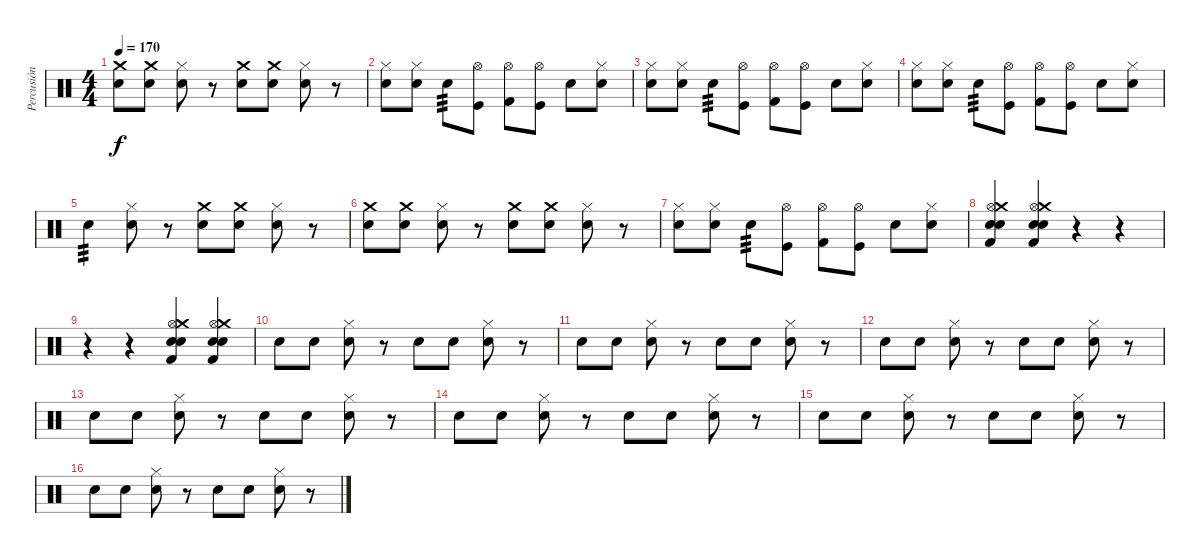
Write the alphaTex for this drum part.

\track ("Percusión" "Percusión") {instrument percussion}
\staff {score}
\articulation defaults
\ts (4 4)
\tempo 170
\clef neutral
\ks c
("Electric Snare (hit)" "Crash medium (hit)").8{dy f} ("Electric Snare (hit)" "Crash medium (hit)").8 ("Hi-Hat (closed)" "Snare (hit) 2").8 r.8 ("Electric Snare (hit)" "Crash medium (hit)").8 ("Electric Snare (hit)" "Crash medium (hit)").8 ("Hi-Hat (closed)" "Snare (hit) 2").8 r.8 |
("Hi-Hat (closed)" "Electric Snare (hit)").8 ("Hi-Hat (closed)" "Electric Snare (hit)").8 "Snare (hit) 2".8{tp 3} ("Hi-Hat (open)" "Kick (hit)").8 ("Hi-Hat (open)" "Kick (hit) 2").8 ("Hi-Hat (open)" "Kick (hit)").8 "Electric Snare (hit)".8 ("Hi-Hat (closed)" "Electric Snare (hit)").8 |
("Hi-Hat (closed)" "Electric Snare (hit)").8 ("Hi-Hat (closed)" "Electric Snare (hit)").8 "Snare (hit) 2".8{tp 3} ("Hi-Hat (open)" "Kick (hit)").8 ("Hi-Hat (open)" "Kick (hit) 2").8 ("Hi-Hat (open)" "Kick (hit)").8 "Electric Snare (hit)".8 ("Hi-Hat (closed)" "Electric Snare (hit)").8 |
("Hi-Hat (closed)" "Electric Snare (hit)").8 ("Hi-Hat (closed)" "Electric Snare (hit)").8 "Snare (hit) 2".8{tp 3} ("Hi-Hat (open)" "Kick (hit)").8 ("Hi-Hat (open)" "Kick (hit) 2").8 ("Hi-Hat (open)" "Kick (hit)").8 "Electric Snare (hit)".8 ("Hi-Hat (closed)" "Electric Snare (hit)").8 |
"Electric Snare (hit)".4{tp 3} ("Hi-Hat (closed)" "Snare (hit) 2").8 r.8 ("Electric Snare (hit)" "Crash medium (hit)").8 ("Electric Snare (hit)" "Crash medium (hit)").8 ("Hi-Hat (closed)" "Snare (hit) 2").8 r.8 |
("Electric Snare (hit)" "Crash medium (hit)").8 ("Electric Snare (hit)" "Crash medium (hit)").8 ("Hi-Hat (closed)" "Snare (hit) 2").8 r.8 ("Electric Snare (hit)" "Crash medium (hit)").8 ("Electric Snare (hit)" "Crash medium (hit)").8 ("Hi-Hat (closed)" "Snare (hit) 2").8 r.8 |
("Hi-Hat (closed)" "Electric Snare (hit)").8 ("Hi-Hat (closed)" "Electric Snare (hit)").8 "Snare (hit) 2".8{tp 3} ("Hi-Hat (open)" "Kick (hit)").8 ("Hi-Hat (open)" "Kick (hit) 2").8 ("Hi-Hat (open)" "Kick (hit)").8 "Electric Snare (hit)".8 ("Hi-Hat (closed)" "Electric Snare (hit)").8 |
("Hi-Hat (open)" "Crash medium (hit)" "Electric Snare (hit)" "Snare (hit) 2" "Kick (hit) 2").4 ("Hi-Hat (open)" "Crash medium (hit)" "Electric Snare (hit)" "Snare (hit) 2" "Kick (hit) 2").4 r.4 r.4 |
r.4 r.4 ("Hi-Hat (open)" "Crash medium (hit)" "Electric Snare (hit)" "Snare (hit) 2" "Kick (hit) 2").4 ("Hi-Hat (open)" "Crash medium (hit)" "Electric Snare (hit)" "Snare (hit) 2" "Kick (hit) 2").4 |
"Electric Snare (hit)".8 "Electric Snare (hit)".8 ("Hi-Hat (closed)" "Snare (hit) 2").8 r.8 "Electric Snare (hit)".8 "Electric Snare (hit)".8 ("Hi-Hat (closed)" "Snare (hit) 2").8 r.8 |
"Electric Snare (hit)".8 "Electric Snare (hit)".8 ("Hi-Hat (closed)" "Snare (hit) 2").8 r.8 "Electric Snare (hit)".8 "Electric Snare (hit)".8 ("Hi-Hat (closed)" "Snare (hit) 2").8 r.8 |
"Electric Snare (hit)".8 "Electric Snare (hit)".8 ("Hi-Hat (closed)" "Snare (hit) 2").8 r.8 "Electric Snare (hit)".8 "Electric Snare (hit)".8 ("Hi-Hat (closed)" "Snare (hit) 2").8 r.8 |
"Electric Snare (hit)".8 "Electric Snare (hit)".8 ("Hi-Hat (closed)" "Snare (hit) 2").8 r.8 "Electric Snare (hit)".8 "Electric Snare (hit)".8 ("Hi-Hat (closed)" "Snare (hit) 2").8 r.8 |
"Electric Snare (hit)".8 "Electric Snare (hit)".8 ("Hi-Hat (closed)" "Snare (hit) 2").8 r.8 "Electric Snare (hit)".8 "Electric Snare (hit)".8 ("Hi-Hat (closed)" "Snare (hit) 2").8 r.8 |
"Electric Snare (hit)".8 "Electric Snare (hit)".8 ("Hi-Hat (closed)" "Snare (hit) 2").8 r.8 "Electric Snare (hit)".8 "Electric Snare (hit)".8 ("Hi-Hat (closed)" "Snare (hit) 2").8 r.8 |
"Electric Snare (hit)".8 "Electric Snare (hit)".8 ("Hi-Hat (closed)" "Snare (hit) 2").8 r.8 "Electric Snare (hit)".8 "Electric Snare (hit)".8 ("Hi-Hat (closed)" "Snare (hit) 2").8 r.8
